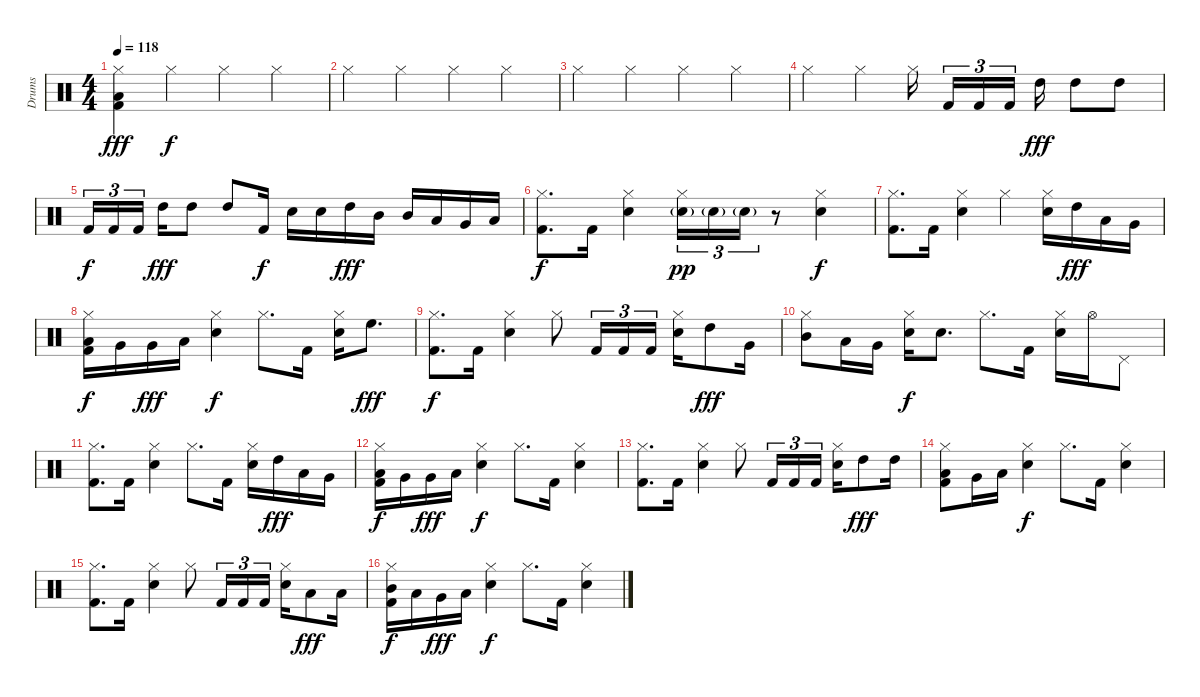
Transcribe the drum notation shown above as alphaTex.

\track ("Drums" "Drums") {instrument percussion}
\staff {score}
\articulation defaults
\ts (4 4)
\tempo 118
\clef neutral
\ks c
("Hi-Hat (closed)" "Low Floor Tom (hit)" "Kick (hit) 2").4{dy fff} "Hi-Hat (closed)".4{dy f} "Hi-Hat (closed)".4 "Hi-Hat (closed)".4 |
"Hi-Hat (closed)".4 "Hi-Hat (closed)".4 "Hi-Hat (closed)".4 "Hi-Hat (closed)".4 |
"Hi-Hat (closed)".4 "Hi-Hat (closed)".4 "Hi-Hat (closed)".4 "Hi-Hat (closed)".4 |
"Hi-Hat (closed)".4 "Hi-Hat (closed)".4 "Hi-Hat (closed)".16{beam splitsecondary} "Kick (hit) 2".16{tu (3 2)} "Kick (hit) 2".16{tu (3 2)} "Kick (hit) 2".16{tu (3 2) beam splitsecondary} "High Tom (hit)".16{dy fff} "High Tom (hit)".8 "High Tom (hit)".8 |
"Kick (hit) 2".16{tu (3 2) dy f} "Kick (hit) 2".16{tu (3 2)} "Kick (hit) 2".16{tu (3 2) beam splitsecondary} "High Tom (hit)".16{dy fff} "High Tom (hit)".8 "High Tom (hit)".8 "Kick (hit) 2".16{dy f} "Electric Snare (hit)".16 "Electric Snare (hit)".16 "High Tom (hit)".16{dy fff} "Mid Tom (hit)".16 "Mid Tom (hit)".16 "Low Tom (hit)".16 "Very Low Tom (hit)".16 "Low Floor Tom (hit)".16 |
("Hi-Hat (closed)" "Kick (hit) 2").8{d dy f} "Kick (hit) 2".16 ("Hi-Hat (closed)" "Electric Snare (hit)").4 ("Hi-Hat (closed)" "Electric Snare (hit)"{g}).16{tu (3 2) dy pp} "Electric Snare (hit)"{g}.16{tu (3 2)} "Electric Snare (hit)"{g}.16{tu (3 2)} r.8 ("Hi-Hat (closed)" "Electric Snare (hit)").4{dy f} |
("Hi-Hat (closed)" "Kick (hit) 2").8{d} "Kick (hit) 2".16 ("Hi-Hat (closed)" "Electric Snare (hit)").4 "Hi-Hat (closed)".4 ("Hi-Hat (closed)" "Electric Snare (hit)").16 "High Tom (hit)".16{dy fff} "Low Tom (hit)".16 "Very Low Tom (hit)".16 |
("Hi-Hat (closed)" "Low Tom (hit)" "Kick (hit) 2").16{dy f} "Very Low Tom (hit)".16 "Very Low Tom (hit)".16{dy fff} "Low Floor Tom (hit)".16 ("Hi-Hat (closed)" "Electric Snare (hit)").4{dy f} "Hi-Hat (closed)".8{d} "Kick (hit) 2".16 ("Hi-Hat (closed)" "Electric Snare (hit)").16 "High Floor Tom (hit)".8{d dy fff} |
("Hi-Hat (closed)" "Kick (hit) 2").8{d dy f} "Kick (hit) 2".16 ("Hi-Hat (closed)" "Electric Snare (hit)").4 "Hi-Hat (closed)".8 "Kick (hit) 2".16{tu (3 2)} "Kick (hit) 2".16{tu (3 2)} "Kick (hit) 2".16{tu (3 2)} ("Hi-Hat (closed)" "Electric Snare (hit)").16 "High Tom (hit)".8{dy fff} "Very Low Tom (hit)".16 |
("Hi-Hat (closed)" "Mid Tom (hit)").8 "Low Tom (hit)".16 "Very Low Tom (hit)".16 ("Hi-Hat (closed)" "Electric Snare (hit)").16{dy f} "Electric Snare (hit)".8{d} "Hi-Hat (closed)".8{d} "Kick (hit) 2".16 ("Hi-Hat (closed)" "Electric Snare (hit)").16 "Hi-Hat (open)".16 "Pedal Hi-Hat (hit)".8 |
("Hi-Hat (closed)" "Kick (hit) 2").8{d} "Kick (hit) 2".16 ("Hi-Hat (closed)" "Electric Snare (hit)").4 "Hi-Hat (closed)".8{d} "Kick (hit) 2".16 ("Hi-Hat (closed)" "Electric Snare (hit)").16 "High Tom (hit)".16{dy fff} "Low Tom (hit)".16 "Very Low Tom (hit)".16 |
("Hi-Hat (closed)" "Low Tom (hit)" "Kick (hit) 2").16{dy f} "Very Low Tom (hit)".16 "Very Low Tom (hit)".16{dy fff} "Low Floor Tom (hit)".16 ("Hi-Hat (closed)" "Electric Snare (hit)").4{dy f} "Hi-Hat (closed)".8{d} "Kick (hit) 2".16 ("Hi-Hat (closed)" "Electric Snare (hit)").4 |
("Hi-Hat (closed)" "Kick (hit) 2").8{d} "Kick (hit) 2".16 ("Hi-Hat (closed)" "Electric Snare (hit)").4 "Hi-Hat (closed)".8 "Kick (hit) 2".16{tu (3 2)} "Kick (hit) 2".16{tu (3 2)} "Kick (hit) 2".16{tu (3 2)} ("Hi-Hat (closed)" "Electric Snare (hit)").16 "High Tom (hit)".8{dy fff} "High Tom (hit)".16 |
("Hi-Hat (closed)" "Low Tom (hit)" "Kick (hit) 2").8 "Very Low Tom (hit)".16 "Low Floor Tom (hit)".16 ("Hi-Hat (closed)" "Electric Snare (hit)").4{dy f} "Hi-Hat (closed)".8{d} "Kick (hit) 2".16 ("Hi-Hat (closed)" "Electric Snare (hit)").4 |
("Hi-Hat (closed)" "Kick (hit) 2").8{d} "Kick (hit) 2".16 ("Hi-Hat (closed)" "Electric Snare (hit)").4 "Hi-Hat (closed)".8 "Kick (hit) 2".16{tu (3 2)} "Kick (hit) 2".16{tu (3 2)} "Kick (hit) 2".16{tu (3 2)} ("Hi-Hat (closed)" "Electric Snare (hit)").16 "Low Tom (hit)".8{dy fff} "Low Tom (hit)".16 |
("Hi-Hat (closed)" "Mid Tom (hit)" "Kick (hit) 2").16{dy f} "Low Tom (hit)".16 "Very Low Tom (hit)".16{dy fff} "Low Floor Tom (hit)".16 ("Hi-Hat (closed)" "Electric Snare (hit)").4{dy f} "Hi-Hat (closed)".8{d} "Kick (hit) 2".16 ("Hi-Hat (closed)" "Electric Snare (hit)").4
